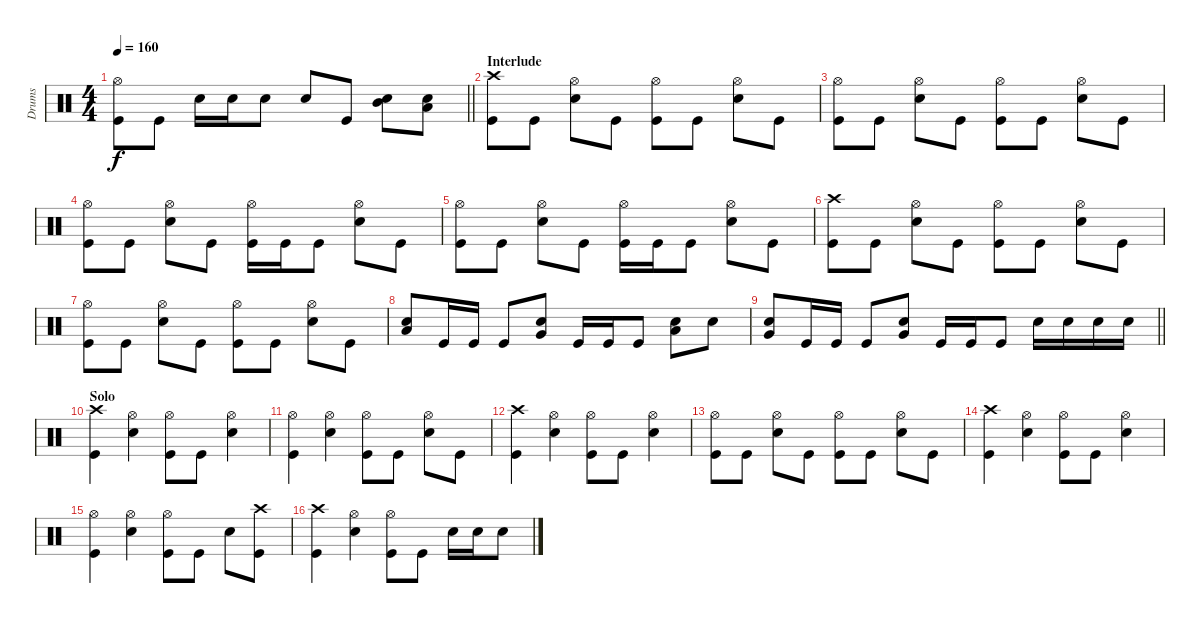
\track ("Drums " "Drums ") {instrument percussion}
\staff {score}
\articulation defaults
\ts (4 4)
\tempo 160
\clef neutral
\barLineRight lightlight
\ks c
("Hi-Hat (open)" "Kick (hit)").8{dy f} "Kick (hit)".8 "Electric Snare (hit)".16 "Electric Snare (hit)".16 "Electric Snare (hit)".8 "Electric Snare (hit)".8 "Kick (hit)".8 ("Mid Tom (hit)" "Electric Snare (hit)").8 ("Low Floor Tom (hit)" "Electric Snare (hit)").8 |
\section ("" "Interlude")
("Crash high (hit)" "Kick (hit)").8 "Kick (hit)".8 ("Hi-Hat (open)" "Electric Snare (hit)").8 "Kick (hit)".8 ("Hi-Hat (open)" "Kick (hit)").8 "Kick (hit)".8 ("Hi-Hat (open)" "Electric Snare (hit)").8 "Kick (hit)".8 |
("Hi-Hat (open)" "Kick (hit)").8 "Kick (hit)".8 ("Hi-Hat (open)" "Electric Snare (hit)").8 "Kick (hit)".8 ("Hi-Hat (open)" "Kick (hit)").8 "Kick (hit)".8 ("Hi-Hat (open)" "Electric Snare (hit)").8 "Kick (hit)".8 |
("Hi-Hat (open)" "Kick (hit)").8 "Kick (hit)".8 ("Hi-Hat (open)" "Electric Snare (hit)").8 "Kick (hit)".8 ("Hi-Hat (open)" "Kick (hit)").16 "Kick (hit)".16 "Kick (hit)".8 ("Hi-Hat (open)" "Electric Snare (hit)").8 "Kick (hit)".8 |
("Hi-Hat (open)" "Kick (hit)").8 "Kick (hit)".8 ("Hi-Hat (open)" "Electric Snare (hit)").8 "Kick (hit)".8 ("Hi-Hat (open)" "Kick (hit)").16 "Kick (hit)".16 "Kick (hit)".8 ("Hi-Hat (open)" "Electric Snare (hit)").8 "Kick (hit)".8 |
("Crash high (hit)" "Kick (hit)").8 "Kick (hit)".8 ("Hi-Hat (open)" "Electric Snare (hit)").8 "Kick (hit)".8 ("Hi-Hat (open)" "Kick (hit)").8 "Kick (hit)".8 ("Hi-Hat (open)" "Electric Snare (hit)").8 "Kick (hit)".8 |
("Hi-Hat (open)" "Kick (hit)").8 "Kick (hit)".8 ("Hi-Hat (open)" "Electric Snare (hit)").8 "Kick (hit)".8 ("Hi-Hat (open)" "Kick (hit)").8 "Kick (hit)".8 ("Hi-Hat (open)" "Electric Snare (hit)").8 "Kick (hit)".8 |
("Low Tom (hit)" "Electric Snare (hit)").8 "Kick (hit)".16 "Kick (hit)".16 "Kick (hit)".8 ("Very Low Tom (hit)" "Electric Snare (hit)").8 "Kick (hit)".16 "Kick (hit)".16 "Kick (hit)".8 ("Low Floor Tom (hit)" "Electric Snare (hit)").8 "Electric Snare (hit)".8 |
\barLineRight lightlight
("Very Low Tom (hit)" "Electric Snare (hit)").8 "Kick (hit)".16 "Kick (hit)".16 "Kick (hit)".8 ("Very Low Tom (hit)" "Electric Snare (hit)").8 "Kick (hit)".16 "Kick (hit)".16 "Kick (hit)".8 "Electric Snare (hit)".16 "Electric Snare (hit)".16 "Electric Snare (hit)".16 "Electric Snare (hit)".16 |
\section ("" "Solo")
("Crash high (hit)" "Kick (hit)").4 ("Hi-Hat (open)" "Electric Snare (hit)").4 ("Hi-Hat (open)" "Kick (hit)").8 "Kick (hit)".8 ("Hi-Hat (open)" "Electric Snare (hit)").4 |
("Hi-Hat (open)" "Kick (hit)").4 ("Hi-Hat (open)" "Electric Snare (hit)").4 ("Hi-Hat (open)" "Kick (hit)").8 "Kick (hit)".8 ("Hi-Hat (open)" "Electric Snare (hit)").8 "Kick (hit)".8 |
("Crash high (hit)" "Kick (hit)").4 ("Hi-Hat (open)" "Electric Snare (hit)").4 ("Hi-Hat (open)" "Kick (hit)").8 "Kick (hit)".8 ("Hi-Hat (open)" "Electric Snare (hit)").4 |
("Hi-Hat (open)" "Kick (hit)").8 "Kick (hit)".8 ("Hi-Hat (open)" "Electric Snare (hit)").8 "Kick (hit)".8 ("Hi-Hat (open)" "Kick (hit)").8 "Kick (hit)".8 ("Hi-Hat (open)" "Electric Snare (hit)").8 "Kick (hit)".8 |
("Crash high (hit)" "Kick (hit)").4 ("Hi-Hat (open)" "Electric Snare (hit)").4 ("Hi-Hat (open)" "Kick (hit)").8 "Kick (hit)".8 ("Hi-Hat (open)" "Electric Snare (hit)").4 |
("Hi-Hat (open)" "Kick (hit)").4 ("Hi-Hat (open)" "Electric Snare (hit)").4 ("Hi-Hat (open)" "Kick (hit)").8 "Kick (hit)".8 "Electric Snare (hit)".8 ("Crash high (hit)" "Kick (hit)").8 |
("Crash high (hit)" "Kick (hit)").4 ("Hi-Hat (open)" "Electric Snare (hit)").4 ("Hi-Hat (open)" "Kick (hit)").8 "Kick (hit)".8 "Electric Snare (hit)".16 "Electric Snare (hit)".16 "Electric Snare (hit)".8
